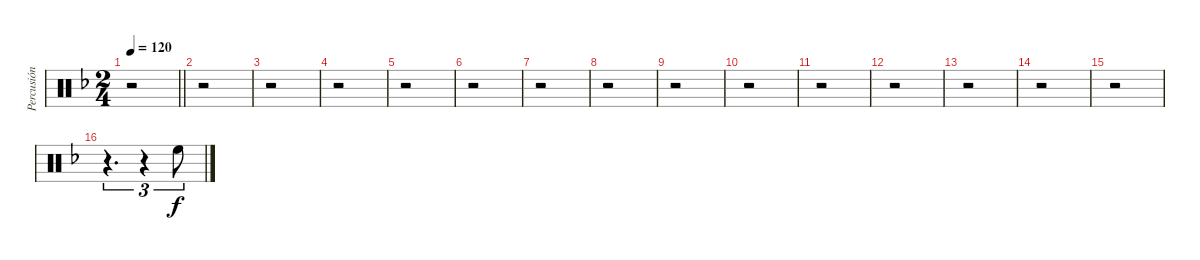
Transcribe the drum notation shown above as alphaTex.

\track ("Percusión" "Percusión") {instrument percussion}
\staff {score}
\articulation defaults
\ts (2 4)
\tempo 120
\clef neutral
\barLineRight lightlight
\ks dminor
r.2{dy f} |
r.2 |
r.2 |
r.2 |
r.2 |
r.2 |
r.2 |
r.2 |
r.2 |
r.2 |
r.2 |
r.2 |
r.2 |
r.2 |
r.2 |
r.4{d tu (3 2)} r.4{tu (3 2)} "High Floor Tom (hit)".8{tu (3 2)}
